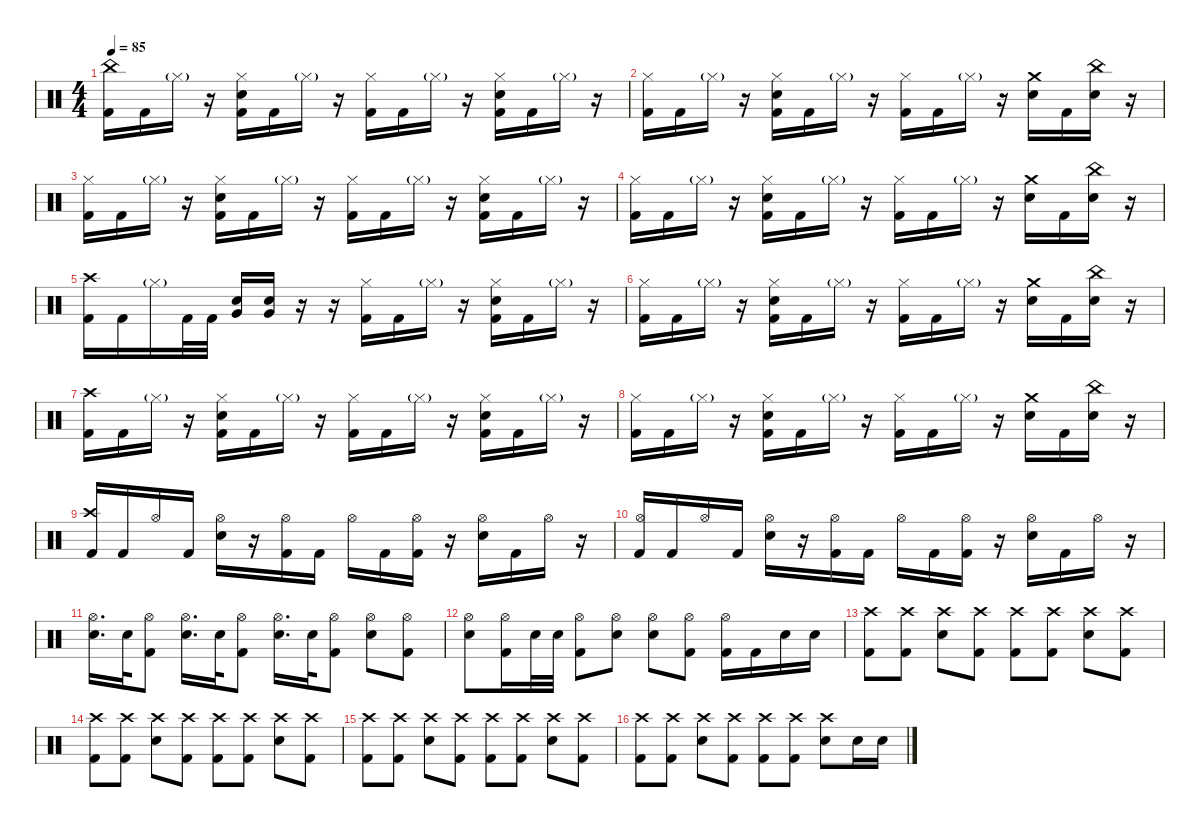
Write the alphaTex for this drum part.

\defaultSystemsLayout 4
\hideDynamics
\bracketExtendMode nobrackets
\singleTrackTrackNamePolicy hidden
\multiTrackTrackNamePolicy hidden
\firstSystemTrackNameMode fullname
\firstSystemTrackNameOrientation horizontal
\otherSystemsTrackNameOrientation horizontal
\track ("Drums" "drm.") {instrument percussion}
\staff {score}
\articulation defaults
\ts (4 4)
\tempo 85
\clef neutral
\ks c
("China (hit)" "Kick (hit) 2").16{dy mf beam Down} "Kick (hit) 2".16{dy f beam Down} "Hi-Hat (closed)"{g}.16{dy mf beam Down} r.16{beam Down} ("Hi-Hat (closed)" "Snare (hit) 2" "Kick (hit) 2").16{dy f beam Down} "Kick (hit) 2".16{beam Down} "Hi-Hat (closed)"{g}.16{dy mf beam Down} r.16{beam Down} ("Hi-Hat (closed)" "Kick (hit) 2").16{dy f beam Down} "Kick (hit) 2".16{beam Down} "Hi-Hat (closed)"{g}.16{dy mf beam Down} r.16{beam Down} ("Hi-Hat (closed)" "Snare (hit) 2" "Kick (hit) 2").16{dy f beam Down} "Kick (hit) 2".16{beam Down} "Hi-Hat (closed)"{g}.16{dy mf beam Down} r.16{beam Down} |
("Hi-Hat (closed)" "Kick (hit) 2").16{dy f beam Down} "Kick (hit) 2".16{beam Down} "Hi-Hat (closed)"{g}.16{dy mf beam Down} r.16{beam Down} ("Hi-Hat (closed)" "Snare (hit) 2" "Kick (hit) 2").16{dy f beam Down} "Kick (hit) 2".16{beam Down} "Hi-Hat (closed)"{g}.16{dy mf beam Down} r.16{beam Down} ("Hi-Hat (closed)" "Kick (hit) 2").16{dy f beam Down} "Kick (hit) 2".16{beam Down} "Hi-Hat (closed)"{g}.16{dy mf beam Down} r.16{beam Down} ("Crash medium (hit)" "Snare (hit) 2").16{dy f beam Down} "Kick (hit) 2".16{beam Down} ("China (hit)" "Snare (hit) 2").16{beam Down} r.16{beam Down} |
("Hi-Hat (closed)" "Kick (hit) 2").16{beam Down} "Kick (hit) 2".16{beam Down} "Hi-Hat (closed)"{g}.16{dy mf beam Down} r.16{beam Down} ("Hi-Hat (closed)" "Snare (hit) 2" "Kick (hit) 2").16{dy f beam Down} "Kick (hit) 2".16{beam Down} "Hi-Hat (closed)"{g}.16{dy mf beam Down} r.16{beam Down} ("Hi-Hat (closed)" "Kick (hit) 2").16{dy f beam Down} "Kick (hit) 2".16{beam Down} "Hi-Hat (closed)"{g}.16{dy mf beam Down} r.16{beam Down} ("Hi-Hat (closed)" "Snare (hit) 2" "Kick (hit) 2").16{dy f beam Down} "Kick (hit) 2".16{beam Down} "Hi-Hat (closed)"{g}.16{dy mf beam Down} r.16{beam Down} |
("Hi-Hat (closed)" "Kick (hit) 2").16{dy f beam Down} "Kick (hit) 2".16{beam Down} "Hi-Hat (closed)"{g}.16{dy mf beam Down} r.16{beam Down} ("Hi-Hat (closed)" "Snare (hit) 2" "Kick (hit) 2").16{dy f beam Down} "Kick (hit) 2".16{beam Down} "Hi-Hat (closed)"{g}.16{dy mf beam Down} r.16{beam Down} ("Hi-Hat (closed)" "Kick (hit) 2").16{dy f beam Down} "Kick (hit) 2".16{beam Down} "Hi-Hat (closed)"{g}.16{dy mf beam Down} r.16{beam Down} ("Crash medium (hit)" "Snare (hit) 2").16{dy f beam Down} "Kick (hit) 2".16{beam Down} ("China (hit)" "Snare (hit) 2").16{beam Down} r.16{beam Down} |
("Crash high (hit)" "Kick (hit) 2").16{beam Down} "Kick (hit) 2".16{beam Down} "Hi-Hat (closed)"{g}.16{dy mf beam Down} "Kick (hit) 2".32{dy f beam Down} "Kick (hit) 2".32{beam Down} ("Snare (hit) 2" "Very Low Tom (hit)").16{beam Up} ("Snare (hit) 2" "Very Low Tom (hit)").16{beam Up} r.16{beam Up} r.16{beam Up} ("Hi-Hat (closed)" "Kick (hit) 2").16{beam Down} "Kick (hit) 2".16{beam Down} "Hi-Hat (closed)"{g}.16{dy mf beam Down} r.16{beam Down} ("Hi-Hat (closed)" "Snare (hit) 2" "Kick (hit) 2").16{dy f beam Down} "Kick (hit) 2".16{beam Down} "Hi-Hat (closed)"{g}.16{dy mf beam Down} r.16{beam Down} |
("Hi-Hat (closed)" "Kick (hit) 2").16{dy f beam Down} "Kick (hit) 2".16{beam Down} "Hi-Hat (closed)"{g}.16{dy mf beam Down} r.16{beam Down} ("Hi-Hat (closed)" "Snare (hit) 2" "Kick (hit) 2").16{dy f beam Down} "Kick (hit) 2".16{beam Down} "Hi-Hat (closed)"{g}.16{dy mf beam Down} r.16{beam Down} ("Hi-Hat (closed)" "Kick (hit) 2").16{dy f beam Down} "Kick (hit) 2".16{beam Down} "Hi-Hat (closed)"{g}.16{dy mf beam Down} r.16{beam Down} ("Crash medium (hit)" "Snare (hit) 2").16{dy f beam Down} "Kick (hit) 2".16{beam Down} ("China (hit)" "Snare (hit) 2").16{beam Down} r.16{beam Down} |
("Crash high (hit)" "Kick (hit) 2").16{beam Down} "Kick (hit) 2".16{beam Down} "Hi-Hat (closed)"{g}.16{dy mf beam Down} r.16{beam Down} ("Hi-Hat (closed)" "Snare (hit) 2" "Kick (hit) 2").16{dy f beam Down} "Kick (hit) 2".16{beam Down} "Hi-Hat (closed)"{g}.16{dy mf beam Down} r.16{beam Down} ("Hi-Hat (closed)" "Kick (hit) 2").16{dy f beam Down} "Kick (hit) 2".16{beam Down} "Hi-Hat (closed)"{g}.16{dy mf beam Down} r.16{beam Down} ("Hi-Hat (closed)" "Snare (hit) 2" "Kick (hit) 2").16{dy f beam Down} "Kick (hit) 2".16{beam Down} "Hi-Hat (closed)"{g}.16{dy mf beam Down} r.16{beam Down} |
("Hi-Hat (closed)" "Kick (hit) 2").16{dy f beam Down} "Kick (hit) 2".16{beam Down} "Hi-Hat (closed)"{g}.16{dy mf beam Down} r.16{beam Down} ("Hi-Hat (closed)" "Snare (hit) 2" "Kick (hit) 2").16{dy f beam Down} "Kick (hit) 2".16{beam Down} "Hi-Hat (closed)"{g}.16{dy mf beam Down} r.16{beam Down} ("Hi-Hat (closed)" "Kick (hit) 2").16{dy f beam Down} "Kick (hit) 2".16{beam Down} "Hi-Hat (closed)"{g}.16{dy mf beam Down} r.16{beam Down} ("Crash medium (hit)" "Snare (hit) 2").16{dy f beam Down} "Kick (hit) 2".16{beam Down} ("China (hit)" "Snare (hit) 2").16{beam Down} r.16{beam Down} |
("Crash high (hit)" "Kick (hit) 2").16{beam Up} "Kick (hit) 2".16{beam Up} "Hi-Hat (open)".16{dy mp beam Up} "Kick (hit) 2".16{dy f beam Up} ("Hi-Hat (open)" "Snare (hit) 2").16{dy mp beam Down} r.16{beam Down} ("Hi-Hat (open)" "Kick (hit) 2").16{beam Down} "Kick (hit) 2".16{dy f beam Down} "Hi-Hat (open)".16{dy mp beam Down} "Kick (hit) 2".16{dy f beam Down} ("Hi-Hat (open)" "Kick (hit) 2").16{dy mp beam Down} r.16{beam Down} ("Hi-Hat (open)" "Snare (hit) 2").16{beam Down} "Kick (hit) 2".16{dy f beam Down} "Hi-Hat (open)".16{dy mp beam Down} r.16{beam Down} |
("Hi-Hat (open)" "Kick (hit) 2").16{beam Up} "Kick (hit) 2".16{dy f beam Up} "Hi-Hat (open)".16{dy mp beam Up} "Kick (hit) 2".16{dy f beam Up} ("Hi-Hat (open)" "Snare (hit) 2").16{dy mp beam Down} r.16{beam Down} ("Hi-Hat (open)" "Kick (hit) 2").16{beam Down} "Kick (hit) 2".16{dy f beam Down} "Hi-Hat (open)".16{dy mp beam Down} "Kick (hit) 2".16{dy f beam Down} ("Hi-Hat (open)" "Kick (hit) 2").16{dy mp beam Down} r.16{beam Down} ("Hi-Hat (open)" "Snare (hit) 2").16{beam Down} "Kick (hit) 2".16{dy f beam Down} "Hi-Hat (open)".16{dy mp beam Down} r.16{beam Down} |
("Hi-Hat (open)" "Snare (hit) 2").16{d beam Down} "Snare (hit) 2".32{dy f beam Down} ("Hi-Hat (open)" "Kick (hit) 2").8{dy mp beam Down} ("Hi-Hat (open)" "Snare (hit) 2").16{d beam Down} "Snare (hit) 2".32{dy f beam Down} ("Hi-Hat (open)" "Kick (hit) 2").8{dy mp beam Down} ("Hi-Hat (open)" "Snare (hit) 2").16{d beam Down} "Snare (hit) 2".32{dy f beam Down} ("Hi-Hat (open)" "Kick (hit) 2").8{dy mp beam Down} ("Hi-Hat (open)" "Snare (hit) 2").8{beam Down} ("Hi-Hat (open)" "Kick (hit) 2").8{beam Down} |
("Hi-Hat (open)" "Snare (hit) 2").8{beam Down} ("Hi-Hat (open)" "Kick (hit) 2").16{beam Down} "Snare (hit) 2".32{dy f beam Down} "Snare (hit) 2".32{beam Down} ("Hi-Hat (open)" "Kick (hit) 2").8{dy mp beam Down} ("Hi-Hat (open)" "Snare (hit) 2").8{beam Down} ("Hi-Hat (open)" "Snare (hit) 2").8{beam Down} ("Hi-Hat (open)" "Kick (hit) 2").8{beam Down} ("Hi-Hat (open)" "Kick (hit) 2").16{beam Down} "Kick (hit) 2".16{dy f beam Down} "Snare (hit) 2".16{beam Down} "Snare (hit) 2".16{beam Down} |
("Crash high (hit)" "Kick (hit) 2").8{beam Down} ("Crash high (hit)" "Kick (hit) 2").8{beam Down} ("Crash high (hit)" "Snare (hit) 2").8{beam Down} ("Crash high (hit)" "Kick (hit) 2").8{beam Down} ("Crash high (hit)" "Kick (hit) 2").8{beam Down} ("Crash high (hit)" "Kick (hit) 2").8{beam Down} ("Crash high (hit)" "Snare (hit) 2").8{beam Down} ("Crash high (hit)" "Kick (hit) 2").8{beam Down} |
("Crash high (hit)" "Kick (hit) 2").8{beam Down} ("Crash high (hit)" "Kick (hit) 2").8{beam Down} ("Crash high (hit)" "Snare (hit) 2").8{beam Down} ("Crash high (hit)" "Kick (hit) 2").8{beam Down} ("Crash high (hit)" "Kick (hit) 2").8{beam Down} ("Crash high (hit)" "Kick (hit) 2").8{beam Down} ("Crash high (hit)" "Snare (hit) 2").8{beam Down} ("Crash high (hit)" "Kick (hit) 2").8{beam Down} |
("Crash high (hit)" "Kick (hit) 2").8{beam Down} ("Crash high (hit)" "Kick (hit) 2").8{beam Down} ("Crash high (hit)" "Snare (hit) 2").8{beam Down} ("Crash high (hit)" "Kick (hit) 2").8{beam Down} ("Crash high (hit)" "Kick (hit) 2").8{beam Down} ("Crash high (hit)" "Kick (hit) 2").8{beam Down} ("Crash high (hit)" "Snare (hit) 2").8{beam Down} ("Crash high (hit)" "Kick (hit) 2").8{beam Down} |
("Crash high (hit)" "Kick (hit) 2").8{beam Down} ("Crash high (hit)" "Kick (hit) 2").8{beam Down} ("Crash high (hit)" "Snare (hit) 2").8{beam Down} ("Crash high (hit)" "Kick (hit) 2").8{beam Down} ("Crash high (hit)" "Kick (hit) 2").8{beam Down} ("Crash high (hit)" "Kick (hit) 2").8{beam Down} ("Crash high (hit)" "Snare (hit) 2").8{beam Down} "Snare (hit) 2".16{beam Down} "Snare (hit) 2".16{beam Down}
